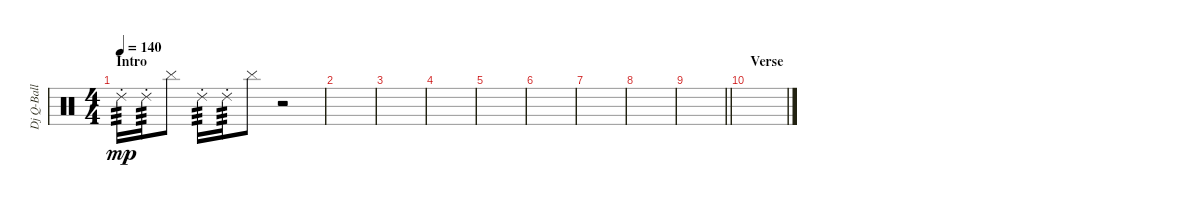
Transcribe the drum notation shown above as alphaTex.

\track ("Dj Q-Ball" "Dj Q-Ball") {instrument percussion}
\staff {score}
\articulation defaults
\ts (4 4)
\section ("" "Intro")
\tempo 140
\clef neutral
\ks c "Ride (choke) 2".16{tp 3 dy mp} "Ride (choke) 2".16{tp 3} "Cymbal (hit)".8 "Ride (choke) 2".16{tp 3} "Ride (choke) 2".16{tp 3} "Cymbal (hit)".8
r.2 |
|
|
|
|
|
|
|
\barLineRight lightlight
|
\section ("" "Verse")
